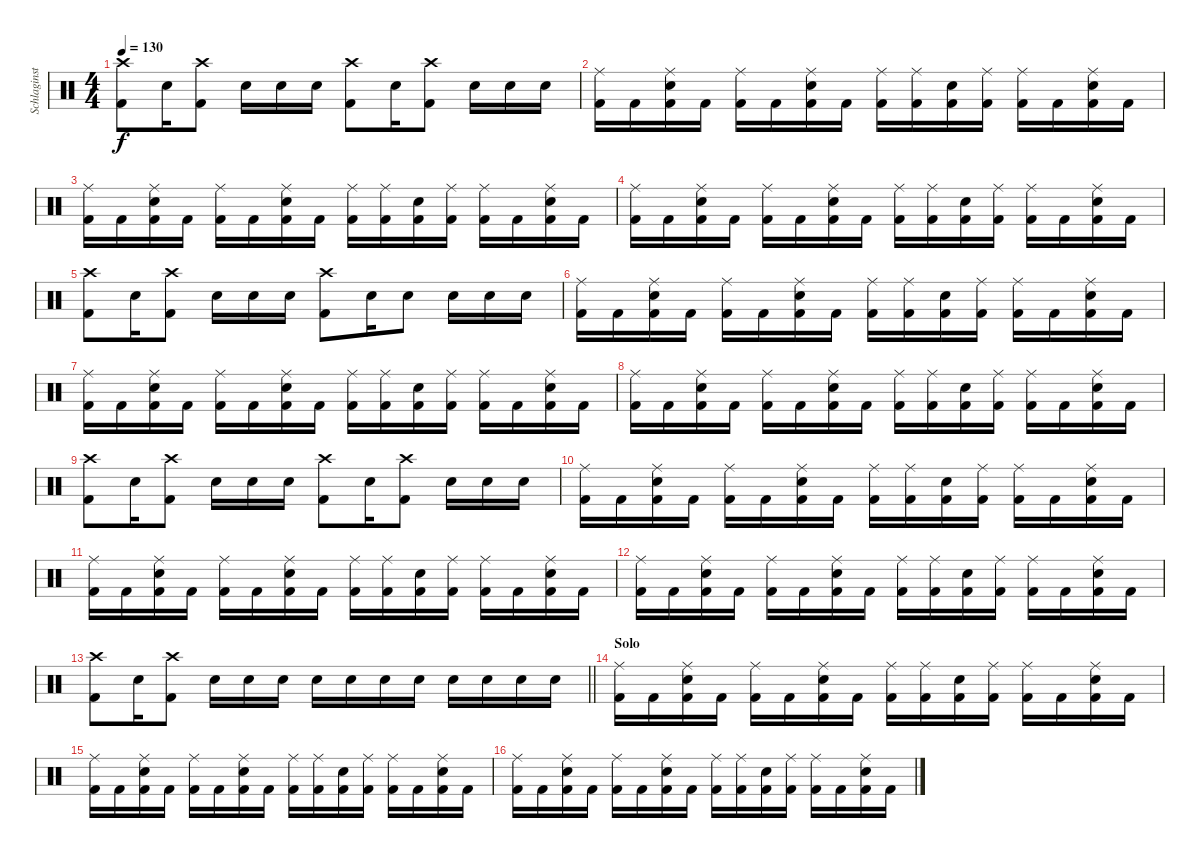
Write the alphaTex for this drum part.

\track ("Schlaginstrumente - Auswahl" "Schlaginst") {instrument percussion}
\staff {score}
\articulation defaults
\ts (4 4)
\tempo 130
\clef neutral
\ks c
("Crash high (hit)" "Kick (hit) 2").8{dy f} "Snare (hit) 2".16 ("Crash high (hit)" "Kick (hit) 2").8 "Snare (hit) 2".16 "Snare (hit) 2".16 "Snare (hit) 2".16 ("Crash high (hit)" "Kick (hit) 2").8 "Snare (hit) 2".16 ("Crash high (hit)" "Kick (hit) 2").8 "Snare (hit) 2".16 "Snare (hit) 2".16 "Snare (hit) 2".16 |
("Ride (middle)" "Kick (hit) 2").16 "Kick (hit) 2".16 ("Ride (middle)" "Snare (hit) 2" "Kick (hit) 2").16 "Kick (hit) 2".16 ("Ride (middle)" "Kick (hit) 2").16 "Kick (hit) 2".16 ("Ride (middle)" "Snare (hit) 2" "Kick (hit) 2").16 "Kick (hit) 2".16 ("Ride (middle)" "Kick (hit) 2").16 ("Ride (middle)" "Kick (hit) 2").16 ("Snare (hit) 2" "Kick (hit) 2").16 ("Ride (middle)" "Kick (hit) 2").16 ("Ride (middle)" "Kick (hit) 2").16 "Kick (hit) 2".16 ("Ride (middle)" "Snare (hit) 2" "Kick (hit) 2").16 "Kick (hit) 2".16 |
("Ride (middle)" "Kick (hit) 2").16 "Kick (hit) 2".16 ("Ride (middle)" "Snare (hit) 2" "Kick (hit) 2").16 "Kick (hit) 2".16 ("Ride (middle)" "Kick (hit) 2").16 "Kick (hit) 2".16 ("Ride (middle)" "Snare (hit) 2" "Kick (hit) 2").16 "Kick (hit) 2".16 ("Ride (middle)" "Kick (hit) 2").16 ("Ride (middle)" "Kick (hit) 2").16 ("Snare (hit) 2" "Kick (hit) 2").16 ("Ride (middle)" "Kick (hit) 2").16 ("Ride (middle)" "Kick (hit) 2").16 "Kick (hit) 2".16 ("Ride (middle)" "Snare (hit) 2" "Kick (hit) 2").16 "Kick (hit) 2".16 |
("Ride (middle)" "Kick (hit) 2").16 "Kick (hit) 2".16 ("Ride (middle)" "Snare (hit) 2" "Kick (hit) 2").16 "Kick (hit) 2".16 ("Ride (middle)" "Kick (hit) 2").16 "Kick (hit) 2".16 ("Ride (middle)" "Snare (hit) 2" "Kick (hit) 2").16 "Kick (hit) 2".16 ("Ride (middle)" "Kick (hit) 2").16 ("Ride (middle)" "Kick (hit) 2").16 ("Snare (hit) 2" "Kick (hit) 2").16 ("Ride (middle)" "Kick (hit) 2").16 ("Ride (middle)" "Kick (hit) 2").16 "Kick (hit) 2".16 ("Ride (middle)" "Snare (hit) 2" "Kick (hit) 2").16 "Kick (hit) 2".16 |
("Crash high (hit)" "Kick (hit) 2").8 "Snare (hit) 2".16 ("Crash high (hit)" "Kick (hit) 2").8 "Snare (hit) 2".16 "Snare (hit) 2".16 "Snare (hit) 2".16 ("Crash high (hit)" "Kick (hit) 2").8 "Snare (hit) 2".16 "Snare (hit) 2".8 "Snare (hit) 2".16 "Snare (hit) 2".16 "Snare (hit) 2".16 |
("Ride (middle)" "Kick (hit) 2").16 "Kick (hit) 2".16 ("Ride (middle)" "Snare (hit) 2" "Kick (hit) 2").16 "Kick (hit) 2".16 ("Ride (middle)" "Kick (hit) 2").16 "Kick (hit) 2".16 ("Ride (middle)" "Snare (hit) 2" "Kick (hit) 2").16 "Kick (hit) 2".16 ("Ride (middle)" "Kick (hit) 2").16 ("Ride (middle)" "Kick (hit) 2").16 ("Snare (hit) 2" "Kick (hit) 2").16 ("Ride (middle)" "Kick (hit) 2").16 ("Ride (middle)" "Kick (hit) 2").16 "Kick (hit) 2".16 ("Ride (middle)" "Snare (hit) 2" "Kick (hit) 2").16 "Kick (hit) 2".16 |
("Ride (middle)" "Kick (hit) 2").16 "Kick (hit) 2".16 ("Ride (middle)" "Snare (hit) 2" "Kick (hit) 2").16 "Kick (hit) 2".16 ("Ride (middle)" "Kick (hit) 2").16 "Kick (hit) 2".16 ("Ride (middle)" "Snare (hit) 2" "Kick (hit) 2").16 "Kick (hit) 2".16 ("Ride (middle)" "Kick (hit) 2").16 ("Ride (middle)" "Kick (hit) 2").16 ("Snare (hit) 2" "Kick (hit) 2").16 ("Ride (middle)" "Kick (hit) 2").16 ("Ride (middle)" "Kick (hit) 2").16 "Kick (hit) 2".16 ("Ride (middle)" "Snare (hit) 2" "Kick (hit) 2").16 "Kick (hit) 2".16 |
("Ride (middle)" "Kick (hit) 2").16 "Kick (hit) 2".16 ("Ride (middle)" "Snare (hit) 2" "Kick (hit) 2").16 "Kick (hit) 2".16 ("Ride (middle)" "Kick (hit) 2").16 "Kick (hit) 2".16 ("Ride (middle)" "Snare (hit) 2" "Kick (hit) 2").16 "Kick (hit) 2".16 ("Ride (middle)" "Kick (hit) 2").16 ("Ride (middle)" "Kick (hit) 2").16 ("Snare (hit) 2" "Kick (hit) 2").16 ("Ride (middle)" "Kick (hit) 2").16 ("Ride (middle)" "Kick (hit) 2").16 "Kick (hit) 2".16 ("Ride (middle)" "Snare (hit) 2" "Kick (hit) 2").16 "Kick (hit) 2".16 |
("Crash high (hit)" "Kick (hit) 2").8 "Snare (hit) 2".16 ("Crash high (hit)" "Kick (hit) 2").8 "Snare (hit) 2".16 "Snare (hit) 2".16 "Snare (hit) 2".16 ("Crash high (hit)" "Kick (hit) 2").8 "Snare (hit) 2".16 ("Crash high (hit)" "Kick (hit) 2").8 "Snare (hit) 2".16 "Snare (hit) 2".16 "Snare (hit) 2".16 |
("Ride (middle)" "Kick (hit) 2").16 "Kick (hit) 2".16 ("Ride (middle)" "Snare (hit) 2" "Kick (hit) 2").16 "Kick (hit) 2".16 ("Ride (middle)" "Kick (hit) 2").16 "Kick (hit) 2".16 ("Ride (middle)" "Snare (hit) 2" "Kick (hit) 2").16 "Kick (hit) 2".16 ("Ride (middle)" "Kick (hit) 2").16 ("Ride (middle)" "Kick (hit) 2").16 ("Snare (hit) 2" "Kick (hit) 2").16 ("Ride (middle)" "Kick (hit) 2").16 ("Ride (middle)" "Kick (hit) 2").16 "Kick (hit) 2".16 ("Ride (middle)" "Snare (hit) 2" "Kick (hit) 2").16 "Kick (hit) 2".16 |
("Ride (middle)" "Kick (hit) 2").16 "Kick (hit) 2".16 ("Ride (middle)" "Snare (hit) 2" "Kick (hit) 2").16 "Kick (hit) 2".16 ("Ride (middle)" "Kick (hit) 2").16 "Kick (hit) 2".16 ("Ride (middle)" "Snare (hit) 2" "Kick (hit) 2").16 "Kick (hit) 2".16 ("Ride (middle)" "Kick (hit) 2").16 ("Ride (middle)" "Kick (hit) 2").16 ("Snare (hit) 2" "Kick (hit) 2").16 ("Ride (middle)" "Kick (hit) 2").16 ("Ride (middle)" "Kick (hit) 2").16 "Kick (hit) 2".16 ("Ride (middle)" "Snare (hit) 2" "Kick (hit) 2").16 "Kick (hit) 2".16 |
("Ride (middle)" "Kick (hit) 2").16 "Kick (hit) 2".16 ("Ride (middle)" "Snare (hit) 2" "Kick (hit) 2").16 "Kick (hit) 2".16 ("Ride (middle)" "Kick (hit) 2").16 "Kick (hit) 2".16 ("Ride (middle)" "Snare (hit) 2" "Kick (hit) 2").16 "Kick (hit) 2".16 ("Ride (middle)" "Kick (hit) 2").16 ("Ride (middle)" "Kick (hit) 2").16 ("Snare (hit) 2" "Kick (hit) 2").16 ("Ride (middle)" "Kick (hit) 2").16 ("Ride (middle)" "Kick (hit) 2").16 "Kick (hit) 2".16 ("Ride (middle)" "Snare (hit) 2" "Kick (hit) 2").16 "Kick (hit) 2".16 |
\barLineRight lightlight
("Crash high (hit)" "Kick (hit) 2").8 "Snare (hit) 2".16 ("Crash high (hit)" "Kick (hit) 2").8 "Snare (hit) 2".16 "Snare (hit) 2".16 "Snare (hit) 2".16 "Snare (hit) 2".16 "Snare (hit) 2".16 "Snare (hit) 2".16 "Snare (hit) 2".16 "Snare (hit) 2".16 "Snare (hit) 2".16 "Snare (hit) 2".16 "Snare (hit) 2".16 |
\section ("" "Solo")
("Ride (middle)" "Kick (hit) 2").16 "Kick (hit) 2".16 ("Ride (middle)" "Snare (hit) 2" "Kick (hit) 2").16 "Kick (hit) 2".16 ("Ride (middle)" "Kick (hit) 2").16 "Kick (hit) 2".16 ("Ride (middle)" "Snare (hit) 2" "Kick (hit) 2").16 "Kick (hit) 2".16 ("Ride (middle)" "Kick (hit) 2").16 ("Ride (middle)" "Kick (hit) 2").16 ("Snare (hit) 2" "Kick (hit) 2").16 ("Ride (middle)" "Kick (hit) 2").16 ("Ride (middle)" "Kick (hit) 2").16 "Kick (hit) 2".16 ("Ride (middle)" "Snare (hit) 2" "Kick (hit) 2").16 "Kick (hit) 2".16 |
("Ride (middle)" "Kick (hit) 2").16 "Kick (hit) 2".16 ("Ride (middle)" "Snare (hit) 2" "Kick (hit) 2").16 "Kick (hit) 2".16 ("Ride (middle)" "Kick (hit) 2").16 "Kick (hit) 2".16 ("Ride (middle)" "Snare (hit) 2" "Kick (hit) 2").16 "Kick (hit) 2".16 ("Ride (middle)" "Kick (hit) 2").16 ("Ride (middle)" "Kick (hit) 2").16 ("Snare (hit) 2" "Kick (hit) 2").16 ("Ride (middle)" "Kick (hit) 2").16 ("Ride (middle)" "Kick (hit) 2").16 "Kick (hit) 2".16 ("Ride (middle)" "Snare (hit) 2" "Kick (hit) 2").16 "Kick (hit) 2".16 |
("Ride (middle)" "Kick (hit) 2").16 "Kick (hit) 2".16 ("Ride (middle)" "Snare (hit) 2" "Kick (hit) 2").16 "Kick (hit) 2".16 ("Ride (middle)" "Kick (hit) 2").16 "Kick (hit) 2".16 ("Ride (middle)" "Snare (hit) 2" "Kick (hit) 2").16 "Kick (hit) 2".16 ("Ride (middle)" "Kick (hit) 2").16 ("Ride (middle)" "Kick (hit) 2").16 ("Snare (hit) 2" "Kick (hit) 2").16 ("Ride (middle)" "Kick (hit) 2").16 ("Ride (middle)" "Kick (hit) 2").16 "Kick (hit) 2".16 ("Ride (middle)" "Snare (hit) 2" "Kick (hit) 2").16 "Kick (hit) 2".16
